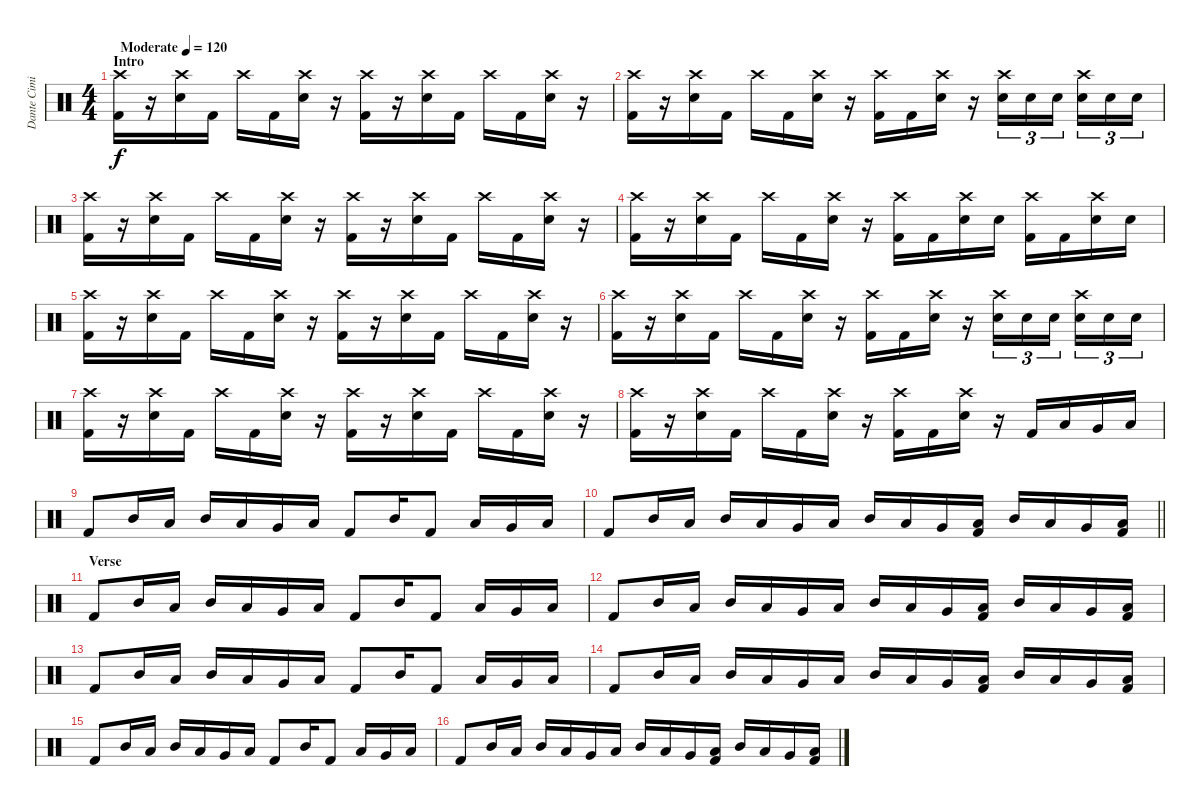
\track ("Dante Cimino" "Dante Cimi") {instrument percussion}
\staff {score}
\articulation defaults
\ts (4 4)
\section ("" "Intro")
\tempo (120 "Moderate")
\clef neutral
\ks c
("Crash high (hit)" "Kick (hit) 2").16{dy f} r.16 ("Crash high (hit)" "Electric Snare (hit)").16 "Kick (hit) 2".16 "Crash high (hit)".16 "Kick (hit) 2".16 ("Crash high (hit)" "Electric Snare (hit)").16 r.16 ("Crash high (hit)" "Kick (hit) 2").16 r.16 ("Crash high (hit)" "Electric Snare (hit)").16 "Kick (hit) 2".16 "Crash high (hit)".16 "Kick (hit) 2".16 ("Crash high (hit)" "Electric Snare (hit)").16 r.16 |
("Crash high (hit)" "Kick (hit) 2").16 r.16 ("Crash high (hit)" "Electric Snare (hit)").16 "Kick (hit) 2".16 "Crash high (hit)".16 "Kick (hit) 2".16 ("Crash high (hit)" "Electric Snare (hit)").16 r.16 ("Crash high (hit)" "Kick (hit) 2").16 "Kick (hit) 2".16 ("Crash high (hit)" "Electric Snare (hit)").16 r.16 ("Crash high (hit)" "Electric Snare (hit)").16{tu (3 2)} "Electric Snare (hit)".16{tu (3 2)} "Electric Snare (hit)".16{tu (3 2) beam splitsecondary} ("Crash high (hit)" "Electric Snare (hit)").16{tu (3 2)} "Electric Snare (hit)".16{tu (3 2)} "Electric Snare (hit)".16{tu (3 2)} |
("Crash high (hit)" "Kick (hit) 2").16 r.16 ("Crash high (hit)" "Electric Snare (hit)").16 "Kick (hit) 2".16 "Crash high (hit)".16 "Kick (hit) 2".16 ("Crash high (hit)" "Electric Snare (hit)").16 r.16 ("Crash high (hit)" "Kick (hit) 2").16 r.16 ("Crash high (hit)" "Electric Snare (hit)").16 "Kick (hit) 2".16 "Crash high (hit)".16 "Kick (hit) 2".16 ("Crash high (hit)" "Electric Snare (hit)").16 r.16 |
("Crash high (hit)" "Kick (hit) 2").16 r.16 ("Crash high (hit)" "Electric Snare (hit)").16 "Kick (hit) 2".16 "Crash high (hit)".16 "Kick (hit) 2".16 ("Crash high (hit)" "Electric Snare (hit)").16 r.16 ("Crash high (hit)" "Kick (hit) 2").16 "Kick (hit) 2".16 ("Crash high (hit)" "Electric Snare (hit)").16 "Electric Snare (hit)".16 ("Crash high (hit)" "Kick (hit) 2").16 "Kick (hit) 2".16 ("Crash high (hit)" "Electric Snare (hit)").16 "Electric Snare (hit)".16 |
("Crash high (hit)" "Kick (hit) 2").16 r.16 ("Crash high (hit)" "Electric Snare (hit)").16 "Kick (hit) 2".16 "Crash high (hit)".16 "Kick (hit) 2".16 ("Crash high (hit)" "Electric Snare (hit)").16 r.16 ("Crash high (hit)" "Kick (hit) 2").16 r.16 ("Crash high (hit)" "Electric Snare (hit)").16 "Kick (hit) 2".16 "Crash high (hit)".16 "Kick (hit) 2".16 ("Crash high (hit)" "Electric Snare (hit)").16 r.16 |
("Crash high (hit)" "Kick (hit) 2").16 r.16 ("Crash high (hit)" "Electric Snare (hit)").16 "Kick (hit) 2".16 "Crash high (hit)".16 "Kick (hit) 2".16 ("Crash high (hit)" "Electric Snare (hit)").16 r.16 ("Crash high (hit)" "Kick (hit) 2").16 "Kick (hit) 2".16 ("Crash high (hit)" "Electric Snare (hit)").16 r.16 ("Crash high (hit)" "Electric Snare (hit)").16{tu (3 2)} "Electric Snare (hit)".16{tu (3 2)} "Electric Snare (hit)".16{tu (3 2) beam splitsecondary} ("Crash high (hit)" "Electric Snare (hit)").16{tu (3 2)} "Electric Snare (hit)".16{tu (3 2)} "Electric Snare (hit)".16{tu (3 2)} |
("Crash high (hit)" "Kick (hit) 2").16 r.16 ("Crash high (hit)" "Electric Snare (hit)").16 "Kick (hit) 2".16 "Crash high (hit)".16 "Kick (hit) 2".16 ("Crash high (hit)" "Electric Snare (hit)").16 r.16 ("Crash high (hit)" "Kick (hit) 2").16 r.16 ("Crash high (hit)" "Electric Snare (hit)").16 "Kick (hit) 2".16 "Crash high (hit)".16 "Kick (hit) 2".16 ("Crash high (hit)" "Electric Snare (hit)").16 r.16 |
("Crash high (hit)" "Kick (hit) 2").16 r.16 ("Crash high (hit)" "Electric Snare (hit)").16 "Kick (hit) 2".16 "Crash high (hit)".16 "Kick (hit) 2".16 ("Crash high (hit)" "Electric Snare (hit)").16 r.16 ("Crash high (hit)" "Kick (hit) 2").16 "Kick (hit) 2".16 ("Crash high (hit)" "Electric Snare (hit)").16 r.16 "Kick (hit) 2".16 "Low Tom (hit)".16 "Very Low Tom (hit)".16 "Low Floor Tom (hit)".16 |
"Kick (hit) 2".8 "Mid Tom (hit)".16 "Low Tom (hit)".16 "Mid Tom (hit)".16 "Low Tom (hit)".16 "Very Low Tom (hit)".16 "Low Floor Tom (hit)".16 "Kick (hit) 2".8 "Mid Tom (hit)".16 "Kick (hit) 2".8 "Low Tom (hit)".16 "Very Low Tom (hit)".16 "Low Floor Tom (hit)".16 |
\barLineRight lightlight "Kick (hit) 2".8 "Mid Tom (hit)".16 "Low Tom (hit)".16 "Mid Tom (hit)".16 "Low Tom (hit)".16 "Very Low Tom (hit)".16 "Low Floor Tom (hit)".16 "Mid Tom (hit)".16 "Low Tom (hit)".16 "Very Low Tom (hit)".16
("Low Floor Tom (hit)" "Kick (hit) 2").16 "Mid Tom (hit)".16 "Low Tom (hit)".16 "Very Low Tom (hit)".16 ("Low Floor Tom (hit)" "Kick (hit) 2").16 |
\section ("" "Verse")
"Kick (hit) 2".8 "Mid Tom (hit)".16 "Low Tom (hit)".16 "Mid Tom (hit)".16 "Low Tom (hit)".16 "Very Low Tom (hit)".16 "Low Floor Tom (hit)".16 "Kick (hit) 2".8 "Mid Tom (hit)".16 "Kick (hit) 2".8 "Low Tom (hit)".16 "Very Low Tom (hit)".16 "Low Floor Tom (hit)".16 |
"Kick (hit) 2".8 "Mid Tom (hit)".16 "Low Tom (hit)".16 "Mid Tom (hit)".16 "Low Tom (hit)".16 "Very Low Tom (hit)".16 "Low Floor Tom (hit)".16 "Mid Tom (hit)".16 "Low Tom (hit)".16 "Very Low Tom (hit)".16 ("Low Floor Tom (hit)" "Kick (hit) 2").16 "Mid Tom (hit)".16 "Low Tom (hit)".16 "Very Low Tom (hit)".16 ("Low Floor Tom (hit)" "Kick (hit) 2").16 |
"Kick (hit) 2".8 "Mid Tom (hit)".16 "Low Tom (hit)".16 "Mid Tom (hit)".16 "Low Tom (hit)".16 "Very Low Tom (hit)".16 "Low Floor Tom (hit)".16 "Kick (hit) 2".8 "Mid Tom (hit)".16 "Kick (hit) 2".8 "Low Tom (hit)".16 "Very Low Tom (hit)".16 "Low Floor Tom (hit)".16 |
"Kick (hit) 2".8 "Mid Tom (hit)".16 "Low Tom (hit)".16 "Mid Tom (hit)".16 "Low Tom (hit)".16 "Very Low Tom (hit)".16 "Low Floor Tom (hit)".16 "Mid Tom (hit)".16 "Low Tom (hit)".16 "Very Low Tom (hit)".16 ("Low Floor Tom (hit)" "Kick (hit) 2").16 "Mid Tom (hit)".16 "Low Tom (hit)".16 "Very Low Tom (hit)".16 ("Low Floor Tom (hit)" "Kick (hit) 2").16 |
"Kick (hit) 2".8 "Mid Tom (hit)".16 "Low Tom (hit)".16 "Mid Tom (hit)".16 "Low Tom (hit)".16 "Very Low Tom (hit)".16 "Low Floor Tom (hit)".16 "Kick (hit) 2".8 "Mid Tom (hit)".16 "Kick (hit) 2".8 "Low Tom (hit)".16 "Very Low Tom (hit)".16 "Low Floor Tom (hit)".16 |
"Kick (hit) 2".8 "Mid Tom (hit)".16 "Low Tom (hit)".16 "Mid Tom (hit)".16 "Low Tom (hit)".16 "Very Low Tom (hit)".16 "Low Floor Tom (hit)".16 "Mid Tom (hit)".16 "Low Tom (hit)".16 "Very Low Tom (hit)".16 ("Low Floor Tom (hit)" "Kick (hit) 2").16 "Mid Tom (hit)".16 "Low Tom (hit)".16 "Very Low Tom (hit)".16 ("Low Floor Tom (hit)" "Kick (hit) 2").16
